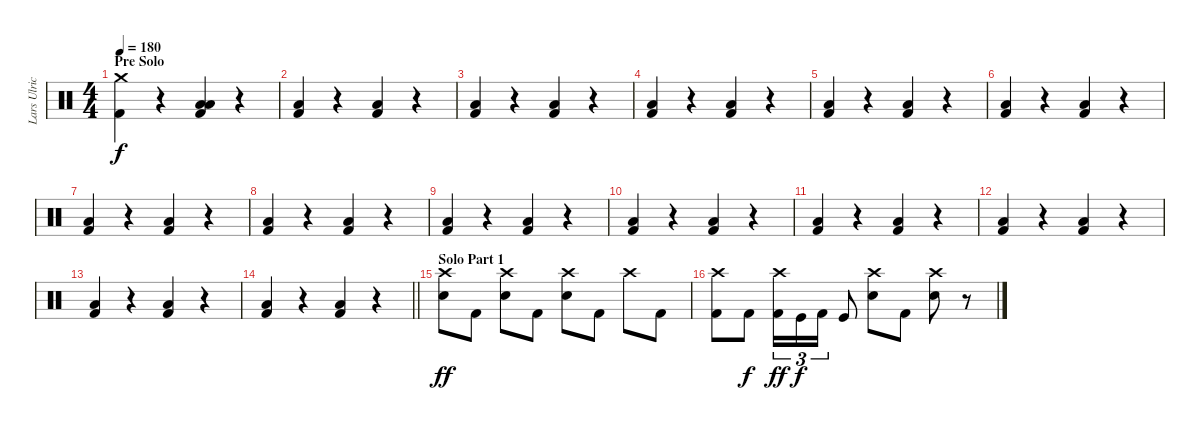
\track ("Lars Ulrich" "Lars Ulric") {instrument percussion}
\staff {score}
\articulation defaults
\ts (4 4)
\section ("" "Pre Solo")
\tempo 180
\clef neutral
\ks c
("Crash medium (hit)" "Kick (hit) 2").4{dy f} r.4 ("Low Floor Tom (hit)" "Low Tom (hit)" "Kick (hit) 2").4 r.4 |
("Low Floor Tom (hit)" "Kick (hit) 2").4 r.4 ("Low Floor Tom (hit)" "Kick (hit) 2").4 r.4 |
("Low Floor Tom (hit)" "Kick (hit) 2").4 r.4 ("Low Floor Tom (hit)" "Kick (hit) 2").4 r.4 |
("Low Floor Tom (hit)" "Kick (hit) 2").4 r.4 ("Low Floor Tom (hit)" "Kick (hit) 2").4 r.4 |
("Low Floor Tom (hit)" "Kick (hit) 2").4 r.4 ("Low Floor Tom (hit)" "Kick (hit) 2").4 r.4 |
("Low Floor Tom (hit)" "Kick (hit) 2").4 r.4 ("Low Floor Tom (hit)" "Kick (hit) 2").4 r.4 |
("Low Floor Tom (hit)" "Kick (hit) 2").4 r.4 ("Low Floor Tom (hit)" "Kick (hit) 2").4 r.4 |
("Low Floor Tom (hit)" "Kick (hit) 2").4 r.4 ("Low Floor Tom (hit)" "Kick (hit) 2").4 r.4 |
("Low Floor Tom (hit)" "Kick (hit) 2").4 r.4 ("Low Floor Tom (hit)" "Kick (hit) 2").4 r.4 |
("Low Floor Tom (hit)" "Kick (hit) 2").4 r.4 ("Low Floor Tom (hit)" "Kick (hit) 2").4 r.4 |
("Low Floor Tom (hit)" "Kick (hit) 2").4 r.4 ("Low Floor Tom (hit)" "Kick (hit) 2").4 r.4 |
("Low Floor Tom (hit)" "Kick (hit) 2").4 r.4 ("Low Floor Tom (hit)" "Kick (hit) 2").4 r.4 |
("Low Floor Tom (hit)" "Kick (hit) 2").4 r.4 ("Low Floor Tom (hit)" "Kick (hit) 2").4 r.4 |
\barLineRight lightlight
("Low Floor Tom (hit)" "Kick (hit) 2").4 r.4 ("Low Floor Tom (hit)" "Kick (hit) 2").4 r.4 |
\section ("" "Solo Part 1")
("Crash high (hit)" "Electric Snare (hit)").8{dy ff} "Kick (hit) 2".8 ("Crash high (hit)" "Electric Snare (hit)").8 "Kick (hit) 2".8 ("Crash high (hit)" "Electric Snare (hit)").8 "Kick (hit) 2".8 "Crash high (hit)".8 "Kick (hit) 2".8 |
("Crash high (hit)" "Kick (hit) 2").8 "Kick (hit) 2".8{dy f} ("Crash high (hit)" "Kick (hit) 2").16{tu (3 2) dy ff} "Kick (hit)".16{tu (3 2) dy f} "Kick (hit) 2".16{tu (3 2)} "Kick (hit)".8 ("Crash high (hit)" "Electric Snare (hit)").8 "Kick (hit) 2".8 ("Crash high (hit)" "Electric Snare (hit)").8 r.8
